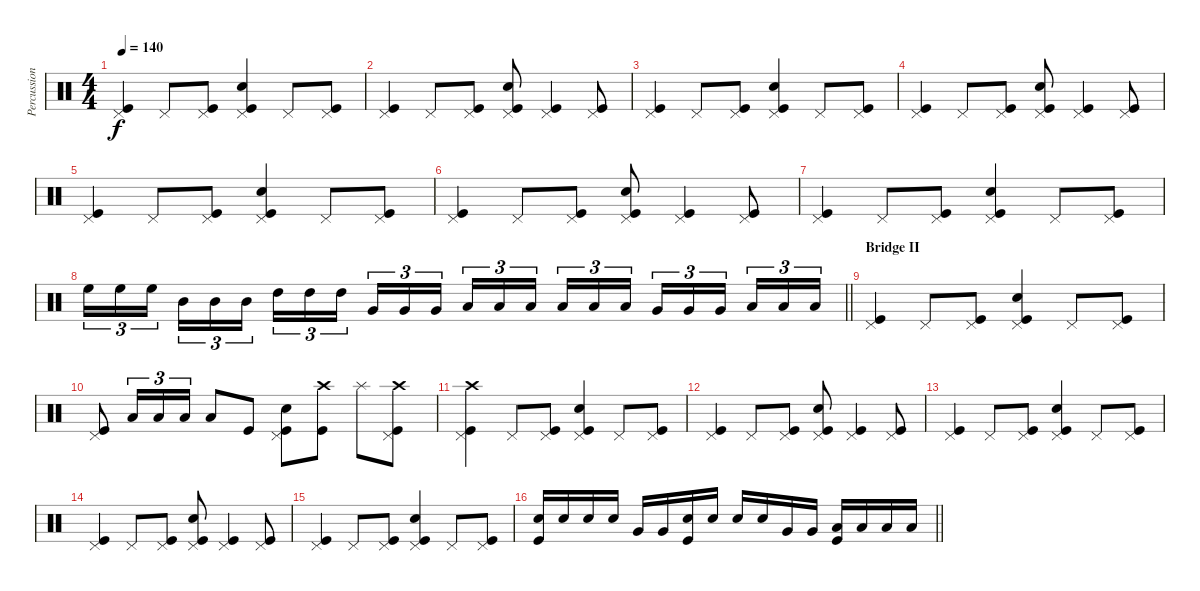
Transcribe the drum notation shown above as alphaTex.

\track ("Percussion" "Percussion") {instrument percussion}
\staff {score}
\articulation defaults
\ts (4 4)
\tempo 140
\clef neutral
\ks c
("Pedal Hi-Hat (hit)" "Kick (hit)").4{dy f} "Pedal Hi-Hat (hit)".8 ("Pedal Hi-Hat (hit)" "Kick (hit)").8 ("Pedal Hi-Hat (hit)" "Snare (hit) 2" "Kick (hit)").4 "Pedal Hi-Hat (hit)".8 ("Pedal Hi-Hat (hit)" "Kick (hit)").8 |
("Pedal Hi-Hat (hit)" "Kick (hit)").4 "Pedal Hi-Hat (hit)".8 ("Pedal Hi-Hat (hit)" "Kick (hit)").8 ("Pedal Hi-Hat (hit)" "Snare (hit) 2" "Kick (hit)").8 ("Pedal Hi-Hat (hit)" "Kick (hit)").4 ("Pedal Hi-Hat (hit)" "Kick (hit)").8 |
("Pedal Hi-Hat (hit)" "Kick (hit)").4 "Pedal Hi-Hat (hit)".8 ("Pedal Hi-Hat (hit)" "Kick (hit)").8 ("Pedal Hi-Hat (hit)" "Snare (hit) 2" "Kick (hit)").4 "Pedal Hi-Hat (hit)".8 ("Pedal Hi-Hat (hit)" "Kick (hit)").8 |
("Pedal Hi-Hat (hit)" "Kick (hit)").4 "Pedal Hi-Hat (hit)".8 ("Pedal Hi-Hat (hit)" "Kick (hit)").8 ("Pedal Hi-Hat (hit)" "Snare (hit) 2" "Kick (hit)").8 ("Pedal Hi-Hat (hit)" "Kick (hit)").4 ("Pedal Hi-Hat (hit)" "Kick (hit)").8 |
("Pedal Hi-Hat (hit)" "Kick (hit)").4 "Pedal Hi-Hat (hit)".8 ("Pedal Hi-Hat (hit)" "Kick (hit)").8 ("Pedal Hi-Hat (hit)" "Snare (hit) 2" "Kick (hit)").4 "Pedal Hi-Hat (hit)".8 ("Pedal Hi-Hat (hit)" "Kick (hit)").8 |
("Pedal Hi-Hat (hit)" "Kick (hit)").4 "Pedal Hi-Hat (hit)".8 ("Pedal Hi-Hat (hit)" "Kick (hit)").8 ("Pedal Hi-Hat (hit)" "Snare (hit) 2" "Kick (hit)").8 ("Pedal Hi-Hat (hit)" "Kick (hit)").4 ("Pedal Hi-Hat (hit)" "Kick (hit)").8 |
("Pedal Hi-Hat (hit)" "Kick (hit)").4 "Pedal Hi-Hat (hit)".8 ("Pedal Hi-Hat (hit)" "Kick (hit)").8 ("Pedal Hi-Hat (hit)" "Snare (hit) 2" "Kick (hit)").4 "Pedal Hi-Hat (hit)".8 ("Pedal Hi-Hat (hit)" "Kick (hit)").8 |
\barLineRight lightlight "High Floor Tom (hit)".16{tu (3 2)} "High Floor Tom (hit)".16{tu (3 2)} "High Floor Tom (hit)".16{tu (3 2)} "Mid Tom (hit)".16{tu (3 2)} "Mid Tom (hit)".16{tu (3 2)} "Mid Tom (hit)".16{tu (3 2)} "High Tom (hit)".16{tu (3 2)} "High Tom (hit)".16{tu (3 2)} "High Tom (hit)".16{tu (3 2)} "Very Low Tom (hit)".16{tu (3 2)} "Very Low Tom (hit)".16{tu (3 2)} "Very Low Tom (hit)".16{tu (3 2)} "Low Tom (hit)".16{tu (3 2)} "Low Tom (hit)".16{tu (3 2)} "Low Tom (hit)".16{tu (3 2)} "Low Floor Tom (hit)".16{tu (3 2)} "Low Floor Tom (hit)".16{tu (3 2)} "Low Floor Tom (hit)".16{tu (3 2)} "Very Low Tom (hit)".16{tu (3 2)} "Very Low Tom (hit)".16{tu (3 2)} "Very Low Tom (hit)".16{tu (3 2)} "Low Floor Tom (hit)".16{tu (3 2)} "Low Floor Tom (hit)".16{tu (3 2)} "Low Floor Tom (hit)".16{tu (3 2)}
|
\section ("" "Bridge II")
("Pedal Hi-Hat (hit)" "Kick (hit)").4 "Pedal Hi-Hat (hit)".8 ("Pedal Hi-Hat (hit)" "Kick (hit)").8 ("Pedal Hi-Hat (hit)" "Snare (hit) 2" "Kick (hit)").4 "Pedal Hi-Hat (hit)".8 ("Pedal Hi-Hat (hit)" "Kick (hit)").8 |
("Pedal Hi-Hat (hit)" "Kick (hit)").8 "Low Tom (hit)".16{tu (3 2)} "Low Tom (hit)".16{tu (3 2)} "Low Tom (hit)".16{tu (3 2)} "Low Tom (hit)".8 "Kick (hit)".8 ("Pedal Hi-Hat (hit)" "Snare (hit) 2" "Kick (hit)").8 ("Crash high (hit)" "Kick (hit)").8 "Splash (hit)".8 ("Crash high (hit)" "Pedal Hi-Hat (hit)" "Kick (hit)").8 |
("Crash high (hit)" "Pedal Hi-Hat (hit)" "Kick (hit)").4 "Pedal Hi-Hat (hit)".8 ("Pedal Hi-Hat (hit)" "Kick (hit)").8 ("Pedal Hi-Hat (hit)" "Snare (hit) 2" "Kick (hit)").4 "Pedal Hi-Hat (hit)".8 ("Pedal Hi-Hat (hit)" "Kick (hit)").8 |
("Pedal Hi-Hat (hit)" "Kick (hit)").4 "Pedal Hi-Hat (hit)".8 ("Pedal Hi-Hat (hit)" "Kick (hit)").8 ("Pedal Hi-Hat (hit)" "Snare (hit) 2" "Kick (hit)").8 ("Pedal Hi-Hat (hit)" "Kick (hit)").4 ("Pedal Hi-Hat (hit)" "Kick (hit)").8 |
("Pedal Hi-Hat (hit)" "Kick (hit)").4 "Pedal Hi-Hat (hit)".8 ("Pedal Hi-Hat (hit)" "Kick (hit)").8 ("Pedal Hi-Hat (hit)" "Snare (hit) 2" "Kick (hit)").4 "Pedal Hi-Hat (hit)".8 ("Pedal Hi-Hat (hit)" "Kick (hit)").8 |
("Pedal Hi-Hat (hit)" "Kick (hit)").4 "Pedal Hi-Hat (hit)".8 ("Pedal Hi-Hat (hit)" "Kick (hit)").8 ("Pedal Hi-Hat (hit)" "Snare (hit) 2" "Kick (hit)").8 ("Pedal Hi-Hat (hit)" "Kick (hit)").4 ("Pedal Hi-Hat (hit)" "Kick (hit)").8 |
("Pedal Hi-Hat (hit)" "Kick (hit)").4 "Pedal Hi-Hat (hit)".8 ("Pedal Hi-Hat (hit)" "Kick (hit)").8 ("Pedal Hi-Hat (hit)" "Snare (hit) 2" "Kick (hit)").4 "Pedal Hi-Hat (hit)".8 ("Pedal Hi-Hat (hit)" "Kick (hit)").8 |
\barLineRight lightlight
("Snare (hit) 2" "Kick (hit)").16 "Snare (hit) 2".16 "Snare (hit) 2".16 "Snare (hit) 2".16 "Very Low Tom (hit)".16 "Very Low Tom (hit)".16 ("Snare (hit) 2" "Kick (hit)").16 "Snare (hit) 2".16 "Snare (hit) 2".16 "Snare (hit) 2".16 "Very Low Tom (hit)".16 "Very Low Tom (hit)".16 ("Low Floor Tom (hit)" "Kick (hit)").16 "Low Floor Tom (hit)".16 "Low Floor Tom (hit)".16 "Low Floor Tom (hit)".16
